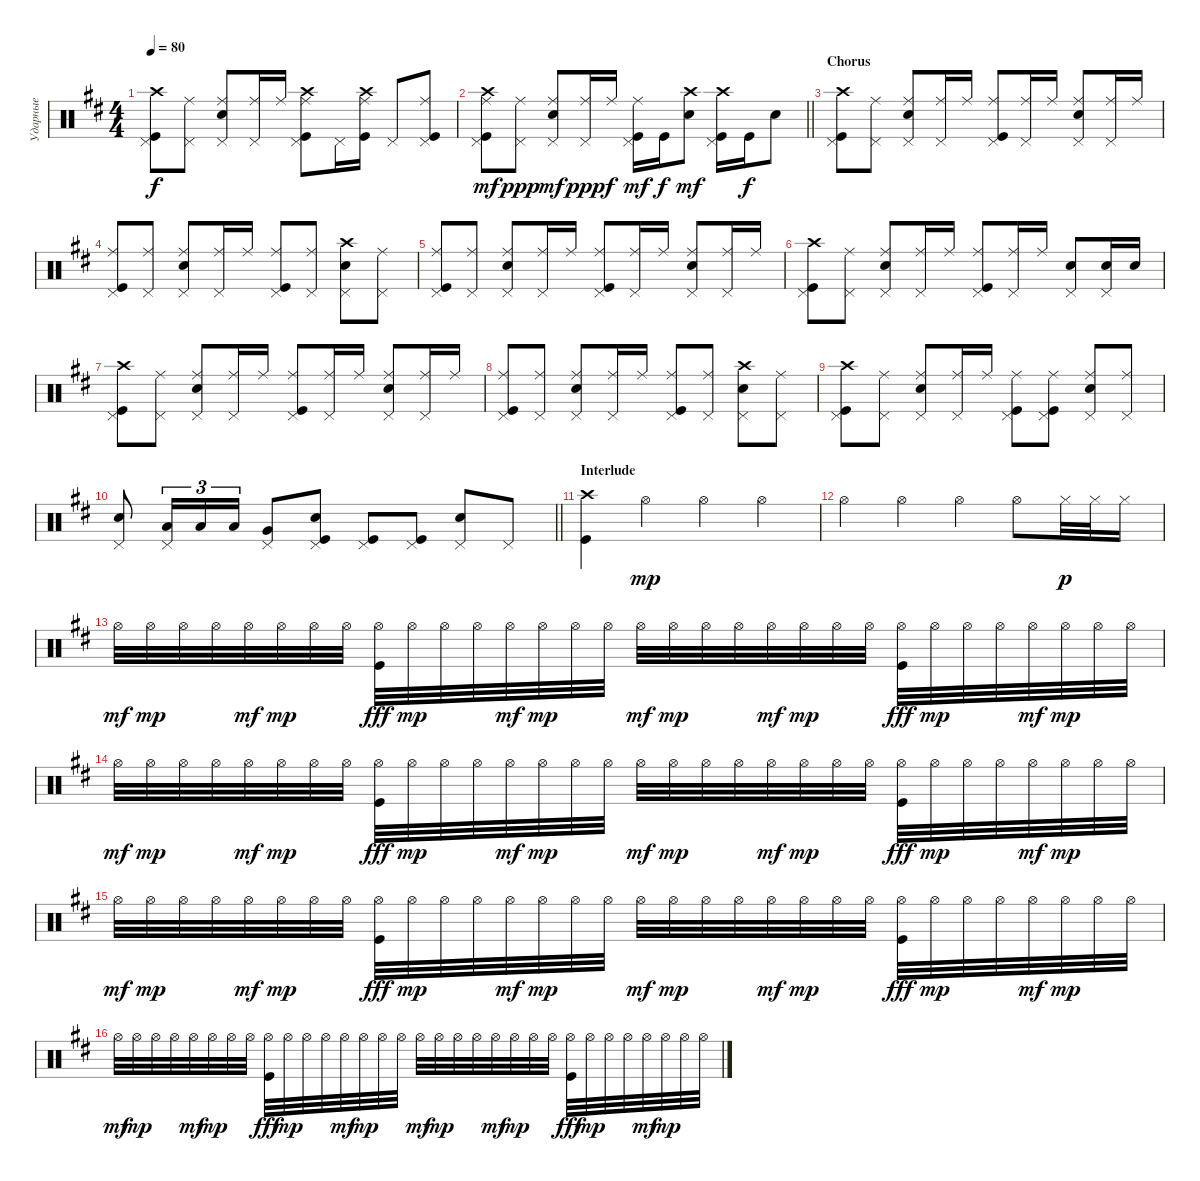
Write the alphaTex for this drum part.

\track ("Ударные" "Ударные") {instrument percussion}
\staff {score}
\articulation defaults
\ts (4 4)
\tempo 80
\clef neutral
\ks bminor
("Crash high (hit)" "Kick (hit)" "Pedal Hi-Hat (hit)").8{dy f} ("Ride (middle)" "Pedal Hi-Hat (hit)").8 ("Snare (hit) 2" "Ride (middle)" "Pedal Hi-Hat (hit)").8 ("Ride (middle)" "Pedal Hi-Hat (hit)").16 "Ride (middle)".16 ("Kick (hit)" "Crash high (hit)" "Pedal Hi-Hat (hit)" "Ride (middle)").8 "Pedal Hi-Hat (hit)".16 ("Kick (hit)" "Crash high (hit)" "Ride (middle)").16 "Pedal Hi-Hat (hit)".8 ("Kick (hit)" "Ride (middle)" "Pedal Hi-Hat (hit)").8 |
\barLineRight lightlight
("Kick (hit)" "Crash high (hit)" "Pedal Hi-Hat (hit)" "Ride (middle)").8{dy mf} ("Ride (middle)" "Pedal Hi-Hat (hit)").8{dy ppp} ("Pedal Hi-Hat (hit)" "Snare (hit) 2" "Ride (middle)").8{dy mf} ("Ride (middle)" "Pedal Hi-Hat (hit)").16{dy ppp} "Ride (middle)".16{dy f} ("Kick (hit)" "Pedal Hi-Hat (hit)" "Ride (middle)").16{dy mf} "Kick (hit)".16{dy f} ("Snare (hit) 2" "Crash high (hit)").8{dy mf} ("Kick (hit)" "Pedal Hi-Hat (hit)" "Crash high (hit)").16 "Kick (hit)".16{dy f} "Snare (hit) 2".8 |
\section ("" "Chorus")
("Crash high (hit)" "Kick (hit)" "Pedal Hi-Hat (hit)").8 ("Ride (middle)" "Pedal Hi-Hat (hit)").8 ("Snare (hit) 2" "Ride (middle)" "Pedal Hi-Hat (hit)").8 ("Ride (middle)" "Pedal Hi-Hat (hit)").16 "Ride (middle)".16 ("Kick (hit)" "Ride (middle)" "Pedal Hi-Hat (hit)").8 ("Ride (middle)" "Pedal Hi-Hat (hit)").16 "Ride (middle)".16 ("Snare (hit) 2" "Ride (middle)" "Pedal Hi-Hat (hit)").8 ("Ride (middle)" "Pedal Hi-Hat (hit)").16 "Ride (middle)".16 |
("Ride (middle)" "Kick (hit)" "Pedal Hi-Hat (hit)").8 ("Ride (middle)" "Pedal Hi-Hat (hit)").8 ("Snare (hit) 2" "Ride (middle)" "Pedal Hi-Hat (hit)").8 ("Ride (middle)" "Pedal Hi-Hat (hit)").16 "Ride (middle)".16 ("Kick (hit)" "Ride (middle)" "Pedal Hi-Hat (hit)").8 ("Ride (middle)" "Pedal Hi-Hat (hit)").8 ("Snare (hit) 2" "Crash high (hit)" "Pedal Hi-Hat (hit)").8 ("Ride (middle)" "Pedal Hi-Hat (hit)").8 |
("Ride (middle)" "Kick (hit)" "Pedal Hi-Hat (hit)").8 ("Ride (middle)" "Pedal Hi-Hat (hit)").8 ("Snare (hit) 2" "Ride (middle)" "Pedal Hi-Hat (hit)").8 ("Ride (middle)" "Pedal Hi-Hat (hit)").16 "Ride (middle)".16 ("Kick (hit)" "Ride (middle)" "Pedal Hi-Hat (hit)").8 ("Ride (middle)" "Pedal Hi-Hat (hit)").16 "Ride (middle)".16 ("Snare (hit) 2" "Ride (middle)" "Pedal Hi-Hat (hit)").8 ("Ride (middle)" "Pedal Hi-Hat (hit)").16 "Ride (middle)".16 |
("Crash high (hit)" "Kick (hit)" "Pedal Hi-Hat (hit)").8 ("Ride (middle)" "Pedal Hi-Hat (hit)").8 ("Snare (hit) 2" "Ride (middle)" "Pedal Hi-Hat (hit)").8 ("Ride (middle)" "Pedal Hi-Hat (hit)").16 "Ride (middle)".16 ("Kick (hit)" "Ride (middle)" "Pedal Hi-Hat (hit)").8 ("Ride (middle)" "Pedal Hi-Hat (hit)").16 "Ride (middle)".16 ("Snare (hit) 2" "Pedal Hi-Hat (hit)").8 ("Snare (hit) 2" "Pedal Hi-Hat (hit)").16 "Snare (hit) 2".16 |
("Crash high (hit)" "Kick (hit)" "Pedal Hi-Hat (hit)").8 ("Ride (middle)" "Pedal Hi-Hat (hit)").8 ("Snare (hit) 2" "Ride (middle)" "Pedal Hi-Hat (hit)").8 ("Ride (middle)" "Pedal Hi-Hat (hit)").16 "Ride (middle)".16 ("Kick (hit)" "Ride (middle)" "Pedal Hi-Hat (hit)").8 ("Ride (middle)" "Pedal Hi-Hat (hit)").16 "Ride (middle)".16 ("Snare (hit) 2" "Ride (middle)" "Pedal Hi-Hat (hit)").8 ("Ride (middle)" "Pedal Hi-Hat (hit)").16 "Ride (middle)".16 |
("Ride (middle)" "Kick (hit)" "Pedal Hi-Hat (hit)").8 ("Ride (middle)" "Pedal Hi-Hat (hit)").8 ("Snare (hit) 2" "Ride (middle)" "Pedal Hi-Hat (hit)").8 ("Ride (middle)" "Pedal Hi-Hat (hit)").16 "Ride (middle)".16 ("Kick (hit)" "Ride (middle)" "Pedal Hi-Hat (hit)").8 ("Ride (middle)" "Pedal Hi-Hat (hit)").8 ("Snare (hit) 2" "Crash high (hit)" "Pedal Hi-Hat (hit)").8 ("Ride (middle)" "Pedal Hi-Hat (hit)").8 |
("Crash high (hit)" "Kick (hit)" "Pedal Hi-Hat (hit)").8 ("Ride (middle)" "Pedal Hi-Hat (hit)").8 ("Snare (hit) 2" "Ride (middle)" "Pedal Hi-Hat (hit)").8 ("Ride (middle)" "Pedal Hi-Hat (hit)").16 "Ride (middle)".16 ("Kick (hit)" "Ride (middle)" "Pedal Hi-Hat (hit)").8 ("Ride (middle)" "Pedal Hi-Hat (hit)" "Kick (hit)").8 ("Snare (hit) 2" "Ride (middle)" "Pedal Hi-Hat (hit)").8 ("Ride (middle)" "Pedal Hi-Hat (hit)").8 |
\barLineRight lightlight
("Snare (hit) 2" "Pedal Hi-Hat (hit)").8 ("Low Tom (hit)" "Pedal Hi-Hat (hit)").16{tu (3 2)} "Low Tom (hit)".16{tu (3 2)} "Low Tom (hit)".16{tu (3 2)} ("Very Low Tom (hit)" "Pedal Hi-Hat (hit)").8 ("Snare (hit) 2" "Kick (hit)" "Pedal Hi-Hat (hit)").8 ("Kick (hit)" "Pedal Hi-Hat (hit)").8 ("Kick (hit)" "Pedal Hi-Hat (hit)").8 ("Snare (hit) 2" "Pedal Hi-Hat (hit)").8 "Pedal Hi-Hat (hit)".8 |
\section ("" "Interlude")
("Crash high (hit)" "Kick (hit)").4 "Hi-Hat (open)".4{dy mp} "Hi-Hat (open)".4 "Hi-Hat (open)".4 |
"Hi-Hat (open)".4 "Hi-Hat (open)".4 "Hi-Hat (open)".4 "Hi-Hat (open)".8 "Hi-Hat (closed)".32{dy p} "Hi-Hat (closed)".32 "Hi-Hat (closed)".16 |
"Hi-Hat (open)".32{dy mf} "Hi-Hat (open)".32{dy mp} "Hi-Hat (open)".32 "Hi-Hat (open)".32 "Hi-Hat (open)".32{dy mf} "Hi-Hat (open)".32{dy mp} "Hi-Hat (open)".32 "Hi-Hat (open)".32 ("Hi-Hat (open)" "Kick (hit)").32{dy fff} "Hi-Hat (open)".32{dy mp} "Hi-Hat (open)".32 "Hi-Hat (open)".32 "Hi-Hat (open)".32{dy mf} "Hi-Hat (open)".32{dy mp} "Hi-Hat (open)".32 "Hi-Hat (open)".32 "Hi-Hat (open)".32{dy mf} "Hi-Hat (open)".32{dy mp} "Hi-Hat (open)".32 "Hi-Hat (open)".32 "Hi-Hat (open)".32{dy mf} "Hi-Hat (open)".32{dy mp} "Hi-Hat (open)".32 "Hi-Hat (open)".32 ("Hi-Hat (open)" "Kick (hit)").32{dy fff} "Hi-Hat (open)".32{dy mp} "Hi-Hat (open)".32 "Hi-Hat (open)".32 "Hi-Hat (open)".32{dy mf} "Hi-Hat (open)".32{dy mp} "Hi-Hat (open)".32 "Hi-Hat (open)".32 |
"Hi-Hat (open)".32{dy mf} "Hi-Hat (open)".32{dy mp} "Hi-Hat (open)".32 "Hi-Hat (open)".32 "Hi-Hat (open)".32{dy mf} "Hi-Hat (open)".32{dy mp} "Hi-Hat (open)".32 "Hi-Hat (open)".32 ("Hi-Hat (open)" "Kick (hit)").32{dy fff} "Hi-Hat (open)".32{dy mp} "Hi-Hat (open)".32 "Hi-Hat (open)".32 "Hi-Hat (open)".32{dy mf} "Hi-Hat (open)".32{dy mp} "Hi-Hat (open)".32 "Hi-Hat (open)".32 "Hi-Hat (open)".32{dy mf} "Hi-Hat (open)".32{dy mp} "Hi-Hat (open)".32 "Hi-Hat (open)".32 "Hi-Hat (open)".32{dy mf} "Hi-Hat (open)".32{dy mp} "Hi-Hat (open)".32 "Hi-Hat (open)".32 ("Hi-Hat (open)" "Kick (hit)").32{dy fff} "Hi-Hat (open)".32{dy mp} "Hi-Hat (open)".32 "Hi-Hat (open)".32 "Hi-Hat (open)".32{dy mf} "Hi-Hat (open)".32{dy mp} "Hi-Hat (open)".32 "Hi-Hat (open)".32 |
"Hi-Hat (open)".32{dy mf} "Hi-Hat (open)".32{dy mp} "Hi-Hat (open)".32 "Hi-Hat (open)".32 "Hi-Hat (open)".32{dy mf} "Hi-Hat (open)".32{dy mp} "Hi-Hat (open)".32 "Hi-Hat (open)".32 ("Hi-Hat (open)" "Kick (hit)").32{dy fff} "Hi-Hat (open)".32{dy mp} "Hi-Hat (open)".32 "Hi-Hat (open)".32 "Hi-Hat (open)".32{dy mf} "Hi-Hat (open)".32{dy mp} "Hi-Hat (open)".32 "Hi-Hat (open)".32 "Hi-Hat (open)".32{dy mf} "Hi-Hat (open)".32{dy mp} "Hi-Hat (open)".32 "Hi-Hat (open)".32 "Hi-Hat (open)".32{dy mf} "Hi-Hat (open)".32{dy mp} "Hi-Hat (open)".32 "Hi-Hat (open)".32 ("Hi-Hat (open)" "Kick (hit)").32{dy fff} "Hi-Hat (open)".32{dy mp} "Hi-Hat (open)".32 "Hi-Hat (open)".32 "Hi-Hat (open)".32{dy mf} "Hi-Hat (open)".32{dy mp} "Hi-Hat (open)".32 "Hi-Hat (open)".32 |
"Hi-Hat (open)".32{dy mf} "Hi-Hat (open)".32{dy mp} "Hi-Hat (open)".32 "Hi-Hat (open)".32 "Hi-Hat (open)".32{dy mf} "Hi-Hat (open)".32{dy mp} "Hi-Hat (open)".32 "Hi-Hat (open)".32 ("Hi-Hat (open)" "Kick (hit)").32{dy fff} "Hi-Hat (open)".32{dy mp} "Hi-Hat (open)".32 "Hi-Hat (open)".32 "Hi-Hat (open)".32{dy mf} "Hi-Hat (open)".32{dy mp} "Hi-Hat (open)".32 "Hi-Hat (open)".32 "Hi-Hat (open)".32{dy mf} "Hi-Hat (open)".32{dy mp} "Hi-Hat (open)".32 "Hi-Hat (open)".32 "Hi-Hat (open)".32{dy mf} "Hi-Hat (open)".32{dy mp} "Hi-Hat (open)".32 "Hi-Hat (open)".32 ("Hi-Hat (open)" "Kick (hit)").32{dy fff} "Hi-Hat (open)".32{dy mp} "Hi-Hat (open)".32 "Hi-Hat (open)".32 "Hi-Hat (open)".32{dy mf} "Hi-Hat (open)".32{dy mp} "Hi-Hat (open)".32 "Hi-Hat (open)".32
